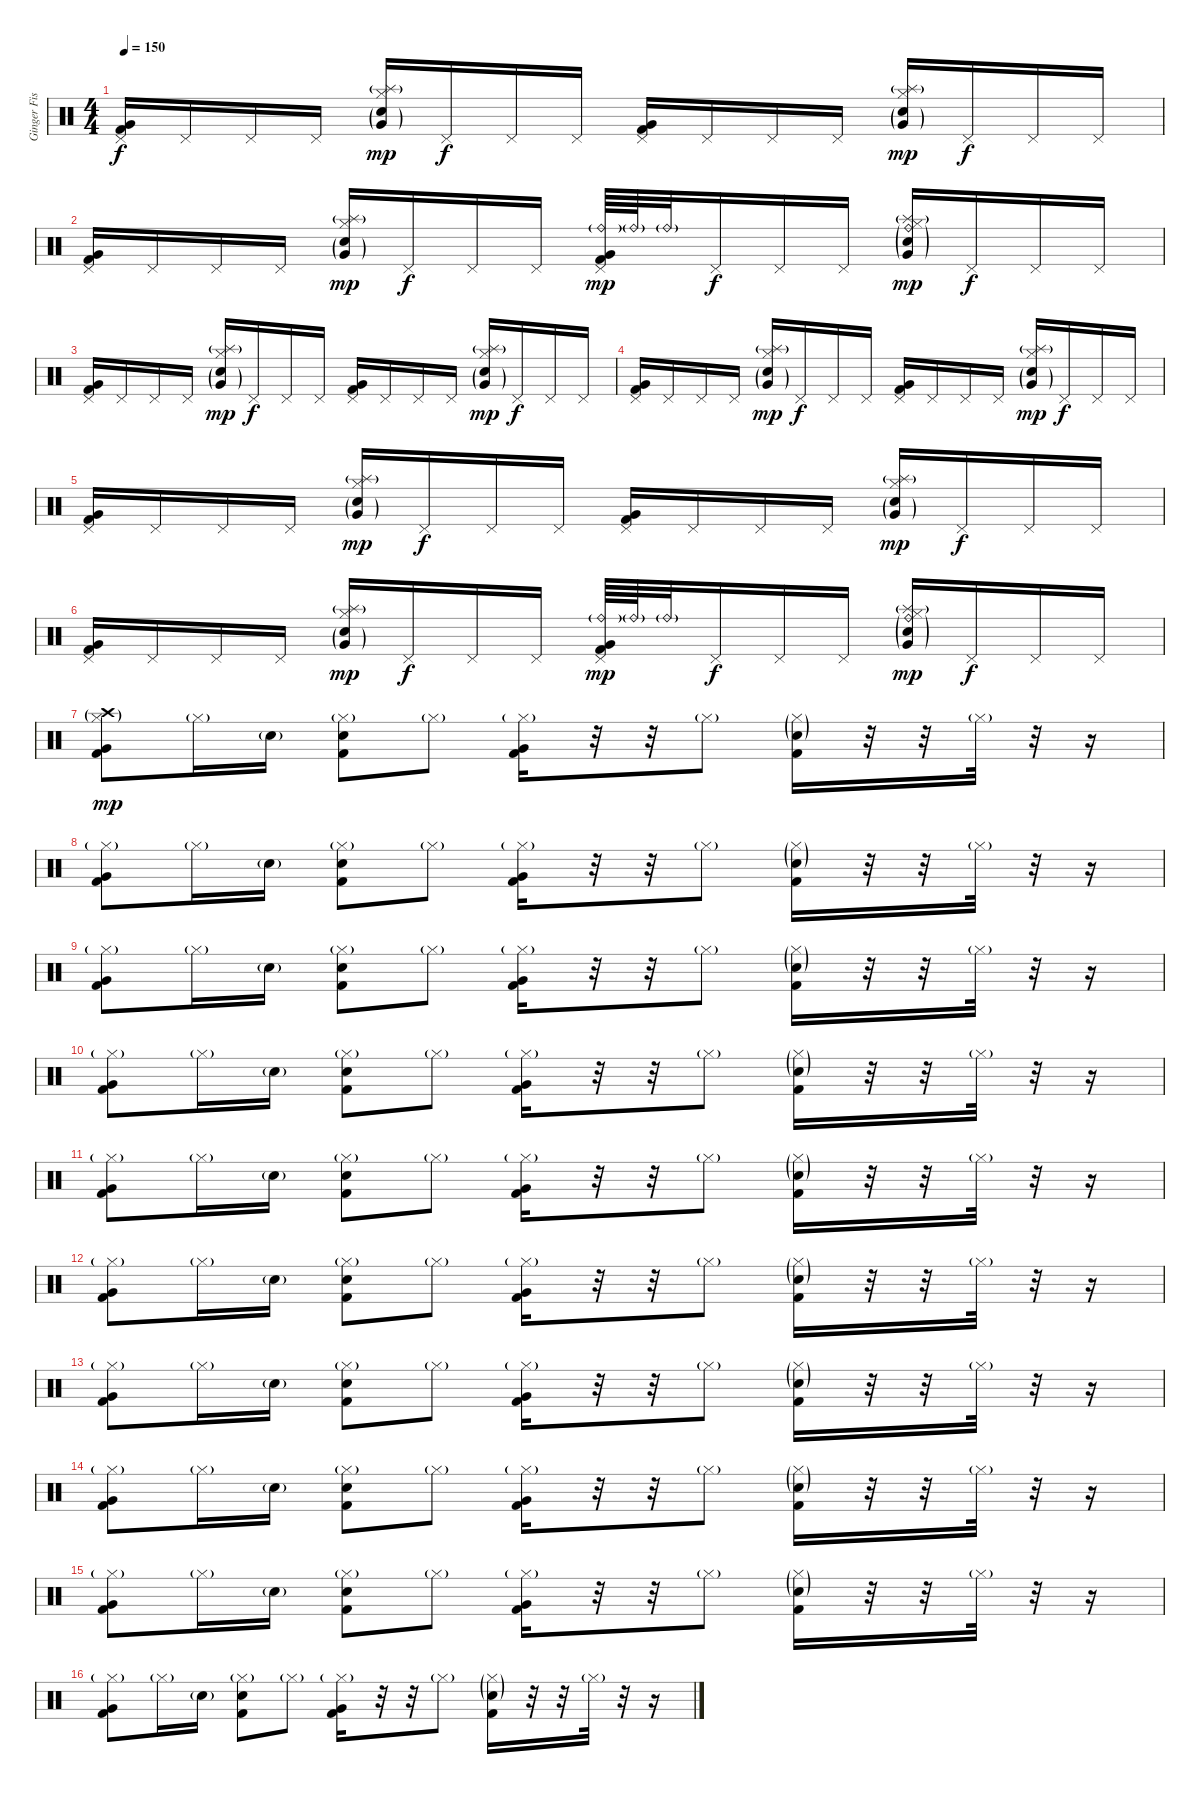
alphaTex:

\track ("Ginger Fish" "Ginger Fis") {instrument percussion}
\staff {score}
\articulation defaults
\ts (4 4)
\tempo 150
\clef neutral
\ks c
("Pedal Hi-Hat (hit)" "Very Low Tom (hit)" "Kick (hit) 2").16{dy f} "Pedal Hi-Hat (hit)".16 "Pedal Hi-Hat (hit)".16 "Pedal Hi-Hat (hit)".16 ("Hi-Hat (closed)" "Splash (hit)"{g} "Electric Snare (hit)"{g} "Very Low Tom (hit)"{g}).16{dy mp} "Pedal Hi-Hat (hit)".16{dy f} "Pedal Hi-Hat (hit)".16 "Pedal Hi-Hat (hit)".16 ("Pedal Hi-Hat (hit)" "Very Low Tom (hit)" "Kick (hit) 2").16 "Pedal Hi-Hat (hit)".16 "Pedal Hi-Hat (hit)".16 "Pedal Hi-Hat (hit)".16 ("Hi-Hat (closed)" "Splash (hit)"{g} "Electric Snare (hit)"{g} "Very Low Tom (hit)"{g}).16{dy mp} "Pedal Hi-Hat (hit)".16{dy f} "Pedal Hi-Hat (hit)".16 "Pedal Hi-Hat (hit)".16 |
("Pedal Hi-Hat (hit)" "Very Low Tom (hit)" "Kick (hit) 2").16 "Pedal Hi-Hat (hit)".16 "Pedal Hi-Hat (hit)".16 "Pedal Hi-Hat (hit)".16 ("Hi-Hat (closed)" "Splash (hit)"{g} "Electric Snare (hit)"{g} "Very Low Tom (hit)"{g}).16{dy mp} "Pedal Hi-Hat (hit)".16{dy f} "Pedal Hi-Hat (hit)".16 "Pedal Hi-Hat (hit)".16 ("Pedal Hi-Hat (hit)" "Ride (bell)"{g} "Very Low Tom (hit)" "Kick (hit) 2").64{dy mp} "Ride (bell)"{g}.64 "Ride (bell)"{g}.32 "Pedal Hi-Hat (hit)".16{dy f} "Pedal Hi-Hat (hit)".16 "Pedal Hi-Hat (hit)".16 ("Hi-Hat (closed)" "Splash (hit)"{g} "Ride (bell)"{g} "Electric Snare (hit)"{g} "Very Low Tom (hit)"{g}).16{dy mp} "Pedal Hi-Hat (hit)".16{dy f} "Pedal Hi-Hat (hit)".16 "Pedal Hi-Hat (hit)".16 |
("Pedal Hi-Hat (hit)" "Very Low Tom (hit)" "Kick (hit) 2").16 "Pedal Hi-Hat (hit)".16 "Pedal Hi-Hat (hit)".16 "Pedal Hi-Hat (hit)".16 ("Hi-Hat (closed)" "Splash (hit)"{g} "Electric Snare (hit)"{g} "Very Low Tom (hit)"{g}).16{dy mp} "Pedal Hi-Hat (hit)".16{dy f} "Pedal Hi-Hat (hit)".16 "Pedal Hi-Hat (hit)".16 ("Pedal Hi-Hat (hit)" "Very Low Tom (hit)" "Kick (hit) 2").16 "Pedal Hi-Hat (hit)".16 "Pedal Hi-Hat (hit)".16 "Pedal Hi-Hat (hit)".16 ("Hi-Hat (closed)" "Splash (hit)"{g} "Electric Snare (hit)"{g} "Very Low Tom (hit)"{g}).16{dy mp} "Pedal Hi-Hat (hit)".16{dy f} "Pedal Hi-Hat (hit)".16 "Pedal Hi-Hat (hit)".16 |
("Pedal Hi-Hat (hit)" "Very Low Tom (hit)" "Kick (hit) 2").16 "Pedal Hi-Hat (hit)".16 "Pedal Hi-Hat (hit)".16 "Pedal Hi-Hat (hit)".16 ("Hi-Hat (closed)" "Splash (hit)"{g} "Electric Snare (hit)"{g} "Very Low Tom (hit)"{g}).16{dy mp} "Pedal Hi-Hat (hit)".16{dy f} "Pedal Hi-Hat (hit)".16 "Pedal Hi-Hat (hit)".16 ("Pedal Hi-Hat (hit)" "Very Low Tom (hit)" "Kick (hit) 2").16 "Pedal Hi-Hat (hit)".16 "Pedal Hi-Hat (hit)".16 "Pedal Hi-Hat (hit)".16 ("Hi-Hat (closed)" "Splash (hit)"{g} "Electric Snare (hit)"{g} "Very Low Tom (hit)"{g}).16{dy mp} "Pedal Hi-Hat (hit)".16{dy f} "Pedal Hi-Hat (hit)".16 "Pedal Hi-Hat (hit)".16 |
("Pedal Hi-Hat (hit)" "Very Low Tom (hit)" "Kick (hit) 2").16 "Pedal Hi-Hat (hit)".16 "Pedal Hi-Hat (hit)".16 "Pedal Hi-Hat (hit)".16 ("Hi-Hat (closed)" "Splash (hit)"{g} "Electric Snare (hit)"{g} "Very Low Tom (hit)"{g}).16{dy mp} "Pedal Hi-Hat (hit)".16{dy f} "Pedal Hi-Hat (hit)".16 "Pedal Hi-Hat (hit)".16 ("Pedal Hi-Hat (hit)" "Very Low Tom (hit)" "Kick (hit) 2").16 "Pedal Hi-Hat (hit)".16 "Pedal Hi-Hat (hit)".16 "Pedal Hi-Hat (hit)".16 ("Hi-Hat (closed)" "Splash (hit)"{g} "Electric Snare (hit)"{g} "Very Low Tom (hit)"{g}).16{dy mp} "Pedal Hi-Hat (hit)".16{dy f} "Pedal Hi-Hat (hit)".16 "Pedal Hi-Hat (hit)".16 |
("Pedal Hi-Hat (hit)" "Very Low Tom (hit)" "Kick (hit) 2").16 "Pedal Hi-Hat (hit)".16 "Pedal Hi-Hat (hit)".16 "Pedal Hi-Hat (hit)".16 ("Hi-Hat (closed)" "Splash (hit)"{g} "Electric Snare (hit)"{g} "Very Low Tom (hit)"{g}).16{dy mp} "Pedal Hi-Hat (hit)".16{dy f} "Pedal Hi-Hat (hit)".16 "Pedal Hi-Hat (hit)".16 ("Pedal Hi-Hat (hit)" "Ride (bell)"{g} "Very Low Tom (hit)" "Kick (hit) 2").64{dy mp} "Ride (bell)"{g}.64 "Ride (bell)"{g}.32 "Pedal Hi-Hat (hit)".16{dy f} "Pedal Hi-Hat (hit)".16 "Pedal Hi-Hat (hit)".16 ("Hi-Hat (closed)" "Splash (hit)"{g} "Ride (bell)"{g} "Electric Snare (hit)"{g} "Very Low Tom (hit)"{g}).16{dy mp} "Pedal Hi-Hat (hit)".16{dy f} "Pedal Hi-Hat (hit)".16 "Pedal Hi-Hat (hit)".16 |
("Hi-Hat (closed)"{g} "Crash high (hit)"{g} "Very Low Tom (hit)" "Kick (hit) 2").8{dy mp} "Hi-Hat (closed)"{g}.16 "Electric Snare (hit)"{g}.16 ("Hi-Hat (closed)"{g} "Electric Snare (hit)" "Kick (hit) 2").8 "Hi-Hat (closed)"{g}.8 ("Hi-Hat (closed)"{g} "Very Low Tom (hit)" "Kick (hit) 2").16 r.32 r.32 "Hi-Hat (closed)"{g}.8 ("Hi-Hat (closed)"{g} "Electric Snare (hit)"{g} "Kick (hit) 2").16 r.32 r.32 "Hi-Hat (closed)"{g}.32 r.32 r.16 |
("Hi-Hat (closed)"{g} "Very Low Tom (hit)" "Kick (hit) 2").8 "Hi-Hat (closed)"{g}.16 "Electric Snare (hit)"{g}.16 ("Hi-Hat (closed)"{g} "Electric Snare (hit)" "Kick (hit) 2").8 "Hi-Hat (closed)"{g}.8 ("Hi-Hat (closed)"{g} "Very Low Tom (hit)" "Kick (hit) 2").16 r.32 r.32 "Hi-Hat (closed)"{g}.8 ("Hi-Hat (closed)"{g} "Electric Snare (hit)"{g} "Kick (hit) 2").16 r.32 r.32 "Hi-Hat (closed)"{g}.32 r.32 r.16 |
("Hi-Hat (closed)"{g} "Very Low Tom (hit)" "Kick (hit) 2").8 "Hi-Hat (closed)"{g}.16 "Electric Snare (hit)"{g}.16 ("Hi-Hat (closed)"{g} "Electric Snare (hit)" "Kick (hit) 2").8 "Hi-Hat (closed)"{g}.8 ("Hi-Hat (closed)"{g} "Very Low Tom (hit)" "Kick (hit) 2").16 r.32 r.32 "Hi-Hat (closed)"{g}.8 ("Hi-Hat (closed)"{g} "Electric Snare (hit)"{g} "Kick (hit) 2").16 r.32 r.32 "Hi-Hat (closed)"{g}.32 r.32 r.16 |
("Hi-Hat (closed)"{g} "Very Low Tom (hit)" "Kick (hit) 2").8 "Hi-Hat (closed)"{g}.16 "Electric Snare (hit)"{g}.16 ("Hi-Hat (closed)"{g} "Electric Snare (hit)" "Kick (hit) 2").8 "Hi-Hat (closed)"{g}.8 ("Hi-Hat (closed)"{g} "Very Low Tom (hit)" "Kick (hit) 2").16 r.32 r.32 "Hi-Hat (closed)"{g}.8 ("Hi-Hat (closed)"{g} "Electric Snare (hit)"{g} "Kick (hit) 2").16 r.32 r.32 "Hi-Hat (closed)"{g}.32 r.32 r.16 |
("Hi-Hat (closed)"{g} "Very Low Tom (hit)" "Kick (hit) 2").8 "Hi-Hat (closed)"{g}.16 "Electric Snare (hit)"{g}.16 ("Hi-Hat (closed)"{g} "Electric Snare (hit)" "Kick (hit) 2").8 "Hi-Hat (closed)"{g}.8 ("Hi-Hat (closed)"{g} "Very Low Tom (hit)" "Kick (hit) 2").16 r.32 r.32 "Hi-Hat (closed)"{g}.8 ("Hi-Hat (closed)"{g} "Electric Snare (hit)"{g} "Kick (hit) 2").16 r.32 r.32 "Hi-Hat (closed)"{g}.32 r.32 r.16 |
("Hi-Hat (closed)"{g} "Very Low Tom (hit)" "Kick (hit) 2").8 "Hi-Hat (closed)"{g}.16 "Electric Snare (hit)"{g}.16 ("Hi-Hat (closed)"{g} "Electric Snare (hit)" "Kick (hit) 2").8 "Hi-Hat (closed)"{g}.8 ("Hi-Hat (closed)"{g} "Very Low Tom (hit)" "Kick (hit) 2").16 r.32 r.32 "Hi-Hat (closed)"{g}.8 ("Hi-Hat (closed)"{g} "Electric Snare (hit)"{g} "Kick (hit) 2").16 r.32 r.32 "Hi-Hat (closed)"{g}.32 r.32 r.16 |
("Hi-Hat (closed)"{g} "Very Low Tom (hit)" "Kick (hit) 2").8 "Hi-Hat (closed)"{g}.16 "Electric Snare (hit)"{g}.16 ("Hi-Hat (closed)"{g} "Electric Snare (hit)" "Kick (hit) 2").8 "Hi-Hat (closed)"{g}.8 ("Hi-Hat (closed)"{g} "Very Low Tom (hit)" "Kick (hit) 2").16 r.32 r.32 "Hi-Hat (closed)"{g}.8 ("Hi-Hat (closed)"{g} "Electric Snare (hit)"{g} "Kick (hit) 2").16 r.32 r.32 "Hi-Hat (closed)"{g}.32 r.32 r.16 |
("Hi-Hat (closed)"{g} "Very Low Tom (hit)" "Kick (hit) 2").8 "Hi-Hat (closed)"{g}.16 "Electric Snare (hit)"{g}.16 ("Hi-Hat (closed)"{g} "Electric Snare (hit)" "Kick (hit) 2").8 "Hi-Hat (closed)"{g}.8 ("Hi-Hat (closed)"{g} "Very Low Tom (hit)" "Kick (hit) 2").16 r.32 r.32 "Hi-Hat (closed)"{g}.8 ("Hi-Hat (closed)"{g} "Electric Snare (hit)"{g} "Kick (hit) 2").16 r.32 r.32 "Hi-Hat (closed)"{g}.32 r.32 r.16 |
("Hi-Hat (closed)"{g} "Very Low Tom (hit)" "Kick (hit) 2").8 "Hi-Hat (closed)"{g}.16 "Electric Snare (hit)"{g}.16 ("Hi-Hat (closed)"{g} "Electric Snare (hit)" "Kick (hit) 2").8 "Hi-Hat (closed)"{g}.8 ("Hi-Hat (closed)"{g} "Very Low Tom (hit)" "Kick (hit) 2").16 r.32 r.32 "Hi-Hat (closed)"{g}.8 ("Hi-Hat (closed)"{g} "Electric Snare (hit)"{g} "Kick (hit) 2").16 r.32 r.32 "Hi-Hat (closed)"{g}.32 r.32 r.16 |
("Hi-Hat (closed)"{g} "Very Low Tom (hit)" "Kick (hit) 2").8 "Hi-Hat (closed)"{g}.16 "Electric Snare (hit)"{g}.16 ("Hi-Hat (closed)"{g} "Electric Snare (hit)" "Kick (hit) 2").8 "Hi-Hat (closed)"{g}.8 ("Hi-Hat (closed)"{g} "Very Low Tom (hit)" "Kick (hit) 2").16 r.32 r.32 "Hi-Hat (closed)"{g}.8 ("Hi-Hat (closed)"{g} "Electric Snare (hit)"{g} "Kick (hit) 2").16 r.32 r.32 "Hi-Hat (closed)"{g}.32 r.32 r.16
